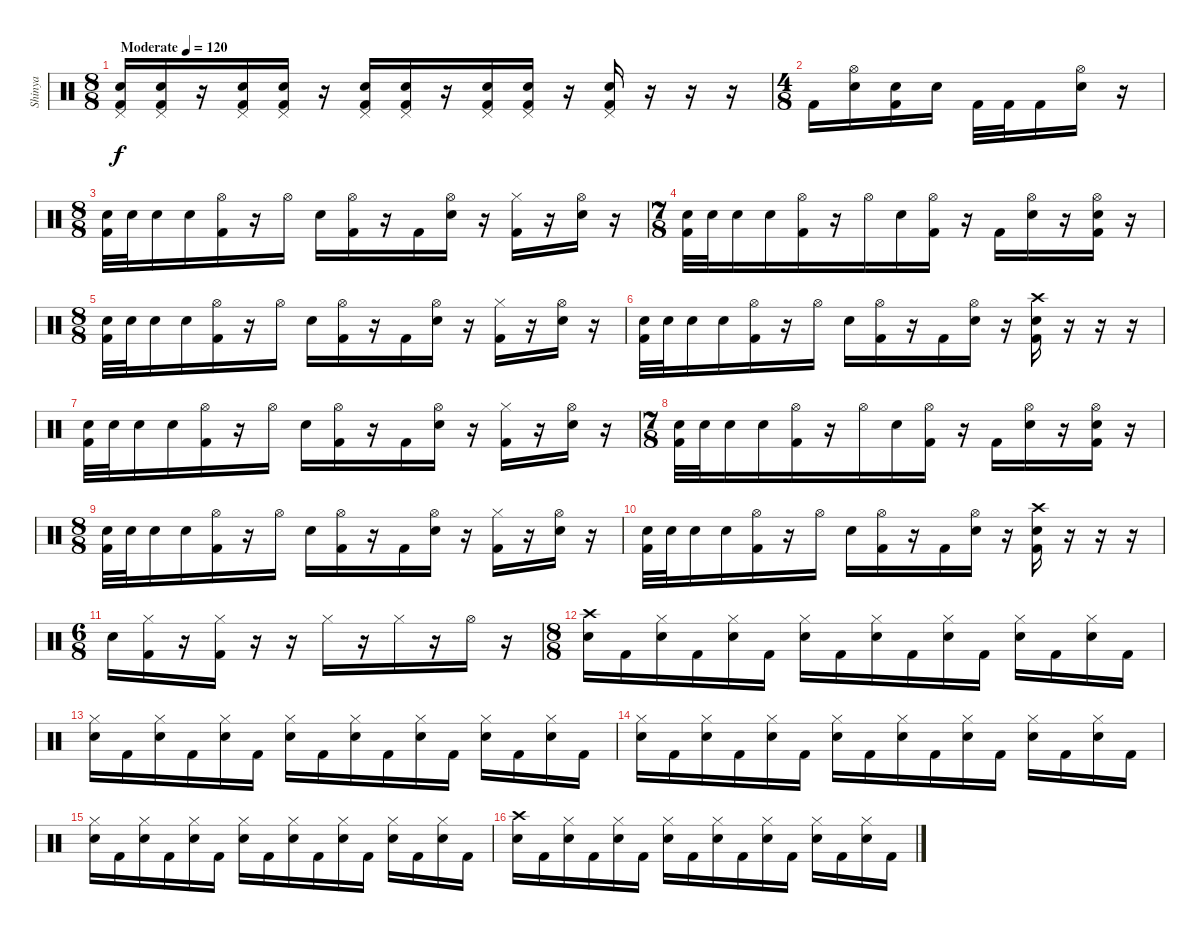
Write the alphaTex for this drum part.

\track ("Shinya" "Shinya") {instrument percussion}
\staff {score}
\articulation defaults
\ts (8 8)
\tempo (120 "Moderate")
\clef neutral
\ks c
("Pedal Hi-Hat (hit)" "Snare (hit) 2" "Kick (hit) 2").16{dy f} ("Pedal Hi-Hat (hit)" "Snare (hit) 2" "Kick (hit) 2").16 r.16 ("Pedal Hi-Hat (hit)" "Snare (hit) 2" "Kick (hit) 2").16 ("Pedal Hi-Hat (hit)" "Snare (hit) 2" "Kick (hit) 2").16 r.16 ("Pedal Hi-Hat (hit)" "Snare (hit) 2" "Kick (hit) 2").16 ("Pedal Hi-Hat (hit)" "Snare (hit) 2" "Kick (hit) 2").16 r.16 ("Pedal Hi-Hat (hit)" "Snare (hit) 2" "Kick (hit) 2").16 ("Pedal Hi-Hat (hit)" "Snare (hit) 2" "Kick (hit) 2").16 r.16 ("Pedal Hi-Hat (hit)" "Snare (hit) 2" "Kick (hit) 2").16 r.16 r.16 r.16 |
\ts (4 8)
"Kick (hit) 2".16 ("Hi-Hat (open)" "Snare (hit) 2").16 ("Snare (hit) 2" "Kick (hit) 2").16 "Snare (hit) 2".16 "Kick (hit) 2".32 "Kick (hit) 2".32 "Kick (hit) 2".16 ("Hi-Hat (open)" "Snare (hit) 2").16 r.16 |
\ts (8 8)
("Snare (hit) 2" "Kick (hit) 2").32 "Snare (hit) 2".32 "Snare (hit) 2".16 "Snare (hit) 2".16 ("Hi-Hat (open)" "Kick (hit) 2").16 r.16 "Hi-Hat (open)".16 "Snare (hit) 2".16 ("Hi-Hat (open)" "Kick (hit) 2").16 r.16 "Kick (hit) 2".16 ("Hi-Hat (open)" "Snare (hit) 2").16 r.16 ("Hi-Hat (closed)" "Kick (hit) 2").16 r.16 ("Hi-Hat (open)" "Snare (hit) 2").16 r.16 |
\ts (7 8)
("Snare (hit) 2" "Kick (hit) 2").32 "Snare (hit) 2".32 "Snare (hit) 2".16 "Snare (hit) 2".16 ("Hi-Hat (open)" "Kick (hit) 2").16 r.16 "Hi-Hat (open)".16 "Snare (hit) 2".16 ("Hi-Hat (open)" "Kick (hit) 2").16 r.16 "Kick (hit) 2".16 ("Hi-Hat (open)" "Snare (hit) 2").16 r.16 ("Hi-Hat (open)" "Snare (hit) 2" "Kick (hit) 2").16 r.16 |
\ts (8 8)
("Snare (hit) 2" "Kick (hit) 2").32 "Snare (hit) 2".32 "Snare (hit) 2".16 "Snare (hit) 2".16 ("Hi-Hat (open)" "Kick (hit) 2").16 r.16 "Hi-Hat (open)".16 "Snare (hit) 2".16 ("Hi-Hat (open)" "Kick (hit) 2").16 r.16 "Kick (hit) 2".16 ("Hi-Hat (open)" "Snare (hit) 2").16 r.16 ("Hi-Hat (closed)" "Kick (hit) 2").16 r.16 ("Hi-Hat (open)" "Snare (hit) 2").16 r.16 |
("Snare (hit) 2" "Kick (hit) 2").32 "Snare (hit) 2".32 "Snare (hit) 2".16 "Snare (hit) 2".16 ("Hi-Hat (open)" "Kick (hit) 2").16 r.16 "Hi-Hat (open)".16 "Snare (hit) 2".16 ("Hi-Hat (open)" "Kick (hit) 2").16 r.16 "Kick (hit) 2".16 ("Hi-Hat (open)" "Snare (hit) 2").16 r.16 ("Crash high (hit)" "Snare (hit) 2" "Kick (hit) 2").16 r.16 r.16 r.16 |
("Snare (hit) 2" "Kick (hit) 2").32 "Snare (hit) 2".32 "Snare (hit) 2".16 "Snare (hit) 2".16 ("Hi-Hat (open)" "Kick (hit) 2").16 r.16 "Hi-Hat (open)".16 "Snare (hit) 2".16 ("Hi-Hat (open)" "Kick (hit) 2").16 r.16 "Kick (hit) 2".16 ("Hi-Hat (open)" "Snare (hit) 2").16 r.16 ("Hi-Hat (closed)" "Kick (hit) 2").16 r.16 ("Hi-Hat (open)" "Snare (hit) 2").16 r.16 |
\ts (7 8)
("Snare (hit) 2" "Kick (hit) 2").32 "Snare (hit) 2".32 "Snare (hit) 2".16 "Snare (hit) 2".16 ("Hi-Hat (open)" "Kick (hit) 2").16 r.16 "Hi-Hat (open)".16 "Snare (hit) 2".16 ("Hi-Hat (open)" "Kick (hit) 2").16 r.16 "Kick (hit) 2".16 ("Hi-Hat (open)" "Snare (hit) 2").16 r.16 ("Hi-Hat (open)" "Snare (hit) 2" "Kick (hit) 2").16 r.16 |
\ts (8 8)
("Snare (hit) 2" "Kick (hit) 2").32 "Snare (hit) 2".32 "Snare (hit) 2".16 "Snare (hit) 2".16 ("Hi-Hat (open)" "Kick (hit) 2").16 r.16 "Hi-Hat (open)".16 "Snare (hit) 2".16 ("Hi-Hat (open)" "Kick (hit) 2").16 r.16 "Kick (hit) 2".16 ("Hi-Hat (open)" "Snare (hit) 2").16 r.16 ("Hi-Hat (closed)" "Kick (hit) 2").16 r.16 ("Hi-Hat (open)" "Snare (hit) 2").16 r.16 |
("Snare (hit) 2" "Kick (hit) 2").32 "Snare (hit) 2".32 "Snare (hit) 2".16 "Snare (hit) 2".16 ("Hi-Hat (open)" "Kick (hit) 2").16 r.16 "Hi-Hat (open)".16 "Snare (hit) 2".16 ("Hi-Hat (open)" "Kick (hit) 2").16 r.16 "Kick (hit) 2".16 ("Hi-Hat (open)" "Snare (hit) 2").16 r.16 ("Crash high (hit)" "Snare (hit) 2" "Kick (hit) 2").16 r.16 r.16 r.16 |
\ts (6 8)
"Snare (hit) 2".16 ("Hi-Hat (closed)" "Kick (hit) 2").16 r.16 ("Hi-Hat (closed)" "Kick (hit) 2").16 r.16 r.16 "Hi-Hat (closed)".16 r.16 "Hi-Hat (closed)".16 r.16 "Hi-Hat (open)".16 r.16 |
\ts (8 8)
("Crash high (hit)" "Snare (hit) 2").16 "Kick (hit) 2".16 ("Hi-Hat (closed)" "Snare (hit) 2").16 "Kick (hit) 2".16 ("Hi-Hat (closed)" "Snare (hit) 2").16 "Kick (hit) 2".16 ("Hi-Hat (closed)" "Snare (hit) 2").16 "Kick (hit) 2".16 ("Hi-Hat (closed)" "Snare (hit) 2").16 "Kick (hit) 2".16 ("Hi-Hat (closed)" "Snare (hit) 2").16 "Kick (hit) 2".16 ("Hi-Hat (closed)" "Snare (hit) 2").16 "Kick (hit) 2".16 ("Hi-Hat (closed)" "Snare (hit) 2").16 "Kick (hit) 2".16 |
("Hi-Hat (closed)" "Snare (hit) 2").16 "Kick (hit) 2".16 ("Hi-Hat (closed)" "Snare (hit) 2").16 "Kick (hit) 2".16 ("Hi-Hat (closed)" "Snare (hit) 2").16 "Kick (hit) 2".16 ("Hi-Hat (closed)" "Snare (hit) 2").16 "Kick (hit) 2".16 ("Hi-Hat (closed)" "Snare (hit) 2").16 "Kick (hit) 2".16 ("Hi-Hat (closed)" "Snare (hit) 2").16 "Kick (hit) 2".16 ("Hi-Hat (closed)" "Snare (hit) 2").16 "Kick (hit) 2".16 ("Hi-Hat (closed)" "Snare (hit) 2").16 "Kick (hit) 2".16 |
("Hi-Hat (closed)" "Snare (hit) 2").16 "Kick (hit) 2".16 ("Hi-Hat (closed)" "Snare (hit) 2").16 "Kick (hit) 2".16 ("Hi-Hat (closed)" "Snare (hit) 2").16 "Kick (hit) 2".16 ("Hi-Hat (closed)" "Snare (hit) 2").16 "Kick (hit) 2".16 ("Hi-Hat (closed)" "Snare (hit) 2").16 "Kick (hit) 2".16 ("Hi-Hat (closed)" "Snare (hit) 2").16 "Kick (hit) 2".16 ("Hi-Hat (closed)" "Snare (hit) 2").16 "Kick (hit) 2".16 ("Hi-Hat (closed)" "Snare (hit) 2").16 "Kick (hit) 2".16 |
("Hi-Hat (closed)" "Snare (hit) 2").16 "Kick (hit) 2".16 ("Hi-Hat (closed)" "Snare (hit) 2").16 "Kick (hit) 2".16 ("Hi-Hat (closed)" "Snare (hit) 2").16 "Kick (hit) 2".16 ("Hi-Hat (closed)" "Snare (hit) 2").16 "Kick (hit) 2".16 ("Hi-Hat (closed)" "Snare (hit) 2").16 "Kick (hit) 2".16 ("Hi-Hat (closed)" "Snare (hit) 2").16 "Kick (hit) 2".16 ("Hi-Hat (closed)" "Snare (hit) 2").16 "Kick (hit) 2".16 ("Hi-Hat (closed)" "Snare (hit) 2").16 "Kick (hit) 2".16 |
("Crash high (hit)" "Snare (hit) 2").16 "Kick (hit) 2".16 ("Hi-Hat (closed)" "Snare (hit) 2").16 "Kick (hit) 2".16 ("Hi-Hat (closed)" "Snare (hit) 2").16 "Kick (hit) 2".16 ("Hi-Hat (closed)" "Snare (hit) 2").16 "Kick (hit) 2".16 ("Hi-Hat (closed)" "Snare (hit) 2").16 "Kick (hit) 2".16 ("Hi-Hat (closed)" "Snare (hit) 2").16 "Kick (hit) 2".16 ("Hi-Hat (closed)" "Snare (hit) 2").16 "Kick (hit) 2".16 ("Hi-Hat (closed)" "Snare (hit) 2").16 "Kick (hit) 2".16
